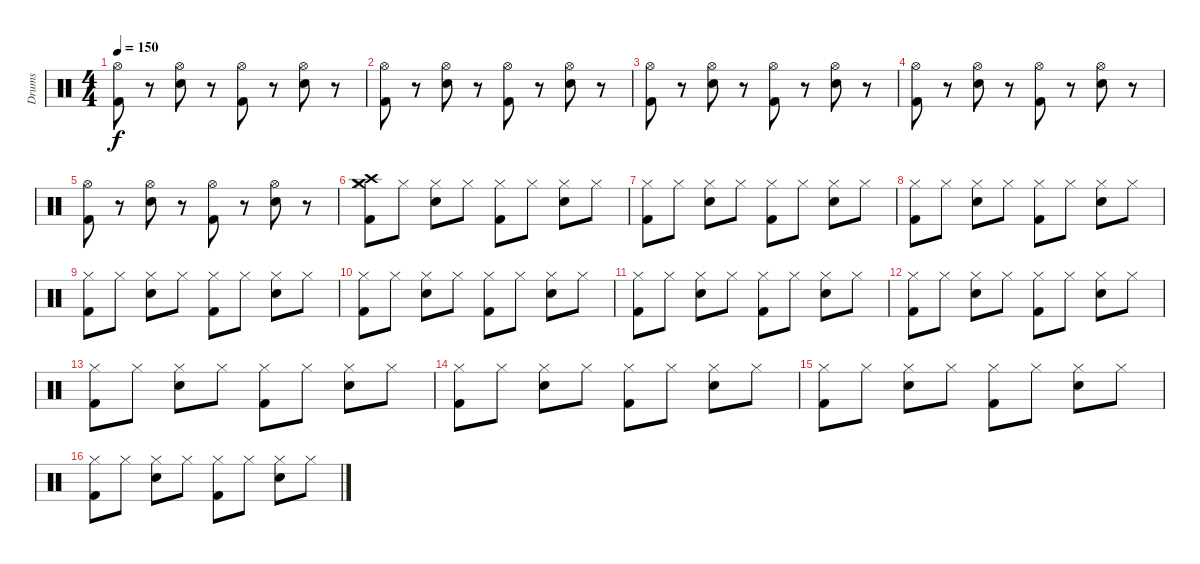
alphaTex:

\track ("Drums" "Drums") {instrument percussion}
\staff {score}
\articulation defaults
\ts (4 4)
\tempo 150
\clef neutral
\ks c
("Hi-Hat (open)" "Kick (hit) 2").8{dy f} r.8 ("Hi-Hat (open)" "Electric Snare (hit)").8 r.8 ("Hi-Hat (open)" "Kick (hit) 2").8 r.8 ("Hi-Hat (open)" "Electric Snare (hit)").8 r.8 |
("Hi-Hat (open)" "Kick (hit) 2").8 r.8 ("Hi-Hat (open)" "Electric Snare (hit)").8 r.8 ("Hi-Hat (open)" "Kick (hit) 2").8 r.8 ("Hi-Hat (open)" "Electric Snare (hit)").8 r.8 |
("Hi-Hat (open)" "Kick (hit) 2").8 r.8 ("Hi-Hat (open)" "Electric Snare (hit)").8 r.8 ("Hi-Hat (open)" "Kick (hit) 2").8 r.8 ("Hi-Hat (open)" "Electric Snare (hit)").8 r.8 |
("Hi-Hat (open)" "Kick (hit) 2").8 r.8 ("Hi-Hat (open)" "Electric Snare (hit)").8 r.8 ("Hi-Hat (open)" "Kick (hit) 2").8 r.8 ("Hi-Hat (open)" "Electric Snare (hit)").8 r.8 |
("Hi-Hat (open)" "Kick (hit) 2").8 r.8 ("Hi-Hat (open)" "Electric Snare (hit)").8 r.8 ("Hi-Hat (open)" "Kick (hit) 2").8 r.8 ("Hi-Hat (open)" "Electric Snare (hit)").8 r.8 |
("Hi-Hat (closed)" "Kick (hit) 2" "Crash high (hit)" "Crash medium (hit)").8 "Hi-Hat (closed)".8 ("Hi-Hat (closed)" "Electric Snare (hit)").8 "Hi-Hat (closed)".8 ("Hi-Hat (closed)" "Kick (hit) 2").8 "Hi-Hat (closed)".8 ("Hi-Hat (closed)" "Electric Snare (hit)").8 "Hi-Hat (closed)".8 |
("Hi-Hat (closed)" "Kick (hit) 2").8 "Hi-Hat (closed)".8 ("Hi-Hat (closed)" "Electric Snare (hit)").8 "Hi-Hat (closed)".8 ("Hi-Hat (closed)" "Kick (hit) 2").8 "Hi-Hat (closed)".8 ("Hi-Hat (closed)" "Electric Snare (hit)").8 "Hi-Hat (closed)".8 |
("Hi-Hat (closed)" "Kick (hit) 2").8 "Hi-Hat (closed)".8 ("Hi-Hat (closed)" "Electric Snare (hit)").8 "Hi-Hat (closed)".8 ("Hi-Hat (closed)" "Kick (hit) 2").8 "Hi-Hat (closed)".8 ("Hi-Hat (closed)" "Electric Snare (hit)").8 "Hi-Hat (closed)".8 |
("Hi-Hat (closed)" "Kick (hit) 2").8 "Hi-Hat (closed)".8 ("Hi-Hat (closed)" "Electric Snare (hit)").8 "Hi-Hat (closed)".8 ("Hi-Hat (closed)" "Kick (hit) 2").8 "Hi-Hat (closed)".8 ("Hi-Hat (closed)" "Electric Snare (hit)").8 "Hi-Hat (closed)".8 |
("Hi-Hat (closed)" "Kick (hit) 2").8 "Hi-Hat (closed)".8 ("Hi-Hat (closed)" "Electric Snare (hit)").8 "Hi-Hat (closed)".8 ("Hi-Hat (closed)" "Kick (hit) 2").8 "Hi-Hat (closed)".8 ("Hi-Hat (closed)" "Electric Snare (hit)").8 "Hi-Hat (closed)".8 |
("Hi-Hat (closed)" "Kick (hit) 2").8 "Hi-Hat (closed)".8 ("Hi-Hat (closed)" "Electric Snare (hit)").8 "Hi-Hat (closed)".8 ("Hi-Hat (closed)" "Kick (hit) 2").8 "Hi-Hat (closed)".8 ("Hi-Hat (closed)" "Electric Snare (hit)").8 "Hi-Hat (closed)".8 |
("Hi-Hat (closed)" "Kick (hit) 2").8 "Hi-Hat (closed)".8 ("Hi-Hat (closed)" "Electric Snare (hit)").8 "Hi-Hat (closed)".8 ("Hi-Hat (closed)" "Kick (hit) 2").8 "Hi-Hat (closed)".8 ("Hi-Hat (closed)" "Electric Snare (hit)").8 "Hi-Hat (closed)".8 |
("Hi-Hat (closed)" "Kick (hit) 2").8 "Hi-Hat (closed)".8 ("Hi-Hat (closed)" "Electric Snare (hit)").8 "Hi-Hat (closed)".8 ("Hi-Hat (closed)" "Kick (hit) 2").8 "Hi-Hat (closed)".8 ("Hi-Hat (closed)" "Electric Snare (hit)").8 "Hi-Hat (closed)".8 |
("Hi-Hat (closed)" "Kick (hit) 2").8 "Hi-Hat (closed)".8 ("Hi-Hat (closed)" "Electric Snare (hit)").8 "Hi-Hat (closed)".8 ("Hi-Hat (closed)" "Kick (hit) 2").8 "Hi-Hat (closed)".8 ("Hi-Hat (closed)" "Electric Snare (hit)").8 "Hi-Hat (closed)".8 |
("Hi-Hat (closed)" "Kick (hit) 2").8 "Hi-Hat (closed)".8 ("Hi-Hat (closed)" "Electric Snare (hit)").8 "Hi-Hat (closed)".8 ("Hi-Hat (closed)" "Kick (hit) 2").8 "Hi-Hat (closed)".8 ("Hi-Hat (closed)" "Electric Snare (hit)").8 "Hi-Hat (closed)".8 |
("Hi-Hat (closed)" "Kick (hit) 2").8 "Hi-Hat (closed)".8 ("Hi-Hat (closed)" "Electric Snare (hit)").8 "Hi-Hat (closed)".8 ("Hi-Hat (closed)" "Kick (hit) 2").8 "Hi-Hat (closed)".8 ("Hi-Hat (closed)" "Electric Snare (hit)").8 "Hi-Hat (closed)".8
